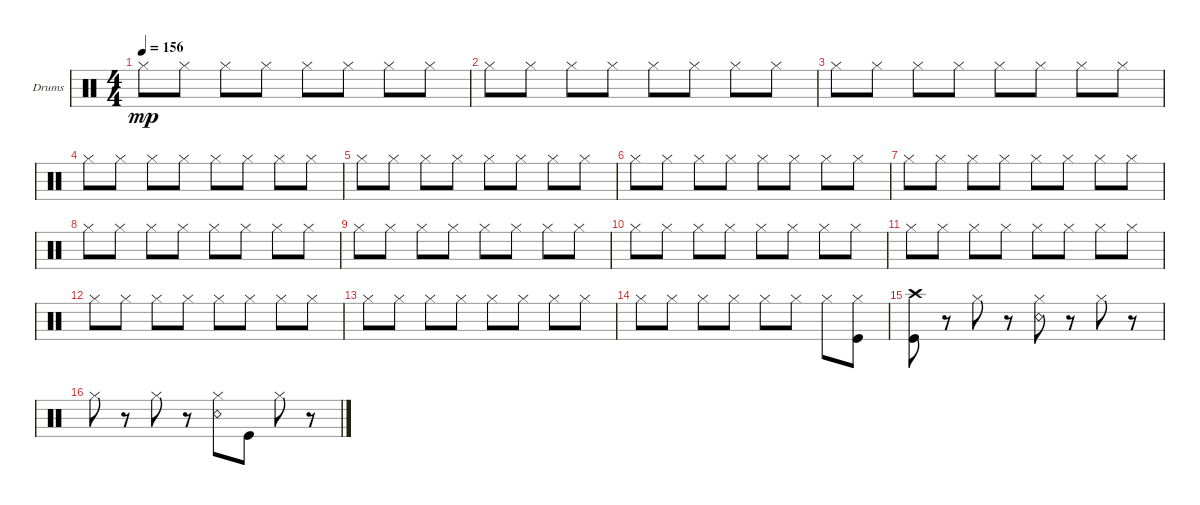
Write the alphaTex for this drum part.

\defaultSystemsLayout 4
\bracketExtendMode groupsimilarinstruments
\firstSystemTrackNameOrientation horizontal
\otherSystemsTrackNameOrientation horizontal
\track ("Drumkit" "Drums") {instrument percussion}
\staff {score}
\articulation defaults
\ts (4 4)
\tempo 156
\clef neutral
\ks c "Hi-Hat (closed)".8{dy mp} "Hi-Hat (closed)".8 "Hi-Hat (closed)".8 "Hi-Hat (closed)".8 "Hi-Hat (closed)".8 "Hi-Hat (closed)".8 "Hi-Hat (closed)".8 "Hi-Hat (closed)".8
|
"Hi-Hat (closed)".8 "Hi-Hat (closed)".8 "Hi-Hat (closed)".8 "Hi-Hat (closed)".8 "Hi-Hat (closed)".8 "Hi-Hat (closed)".8 "Hi-Hat (closed)".8 "Hi-Hat (closed)".8 |
"Hi-Hat (closed)".8 "Hi-Hat (closed)".8 "Hi-Hat (closed)".8 "Hi-Hat (closed)".8 "Hi-Hat (closed)".8 "Hi-Hat (closed)".8 "Hi-Hat (closed)".8 "Hi-Hat (closed)".8 |
"Hi-Hat (closed)".8 "Hi-Hat (closed)".8 "Hi-Hat (closed)".8 "Hi-Hat (closed)".8 "Hi-Hat (closed)".8 "Hi-Hat (closed)".8 "Hi-Hat (closed)".8 "Hi-Hat (closed)".8 |
"Hi-Hat (closed)".8 "Hi-Hat (closed)".8 "Hi-Hat (closed)".8 "Hi-Hat (closed)".8 "Hi-Hat (closed)".8 "Hi-Hat (closed)".8 "Hi-Hat (closed)".8 "Hi-Hat (closed)".8 |
"Hi-Hat (closed)".8 "Hi-Hat (closed)".8 "Hi-Hat (closed)".8 "Hi-Hat (closed)".8 "Hi-Hat (closed)".8 "Hi-Hat (closed)".8 "Hi-Hat (closed)".8 "Hi-Hat (closed)".8 |
"Hi-Hat (closed)".8 "Hi-Hat (closed)".8 "Hi-Hat (closed)".8 "Hi-Hat (closed)".8 "Hi-Hat (closed)".8 "Hi-Hat (closed)".8 "Hi-Hat (closed)".8 "Hi-Hat (closed)".8 |
"Hi-Hat (closed)".8 "Hi-Hat (closed)".8 "Hi-Hat (closed)".8 "Hi-Hat (closed)".8 "Hi-Hat (closed)".8 "Hi-Hat (closed)".8 "Hi-Hat (closed)".8 "Hi-Hat (closed)".8 |
"Hi-Hat (closed)".8 "Hi-Hat (closed)".8 "Hi-Hat (closed)".8 "Hi-Hat (closed)".8 "Hi-Hat (closed)".8 "Hi-Hat (closed)".8 "Hi-Hat (closed)".8 "Hi-Hat (closed)".8 |
"Hi-Hat (closed)".8 "Hi-Hat (closed)".8 "Hi-Hat (closed)".8 "Hi-Hat (closed)".8 "Hi-Hat (closed)".8 "Hi-Hat (closed)".8 "Hi-Hat (closed)".8 "Hi-Hat (closed)".8 |
"Hi-Hat (closed)".8 "Hi-Hat (closed)".8 "Hi-Hat (closed)".8 "Hi-Hat (closed)".8 "Hi-Hat (closed)".8 "Hi-Hat (closed)".8 "Hi-Hat (closed)".8 "Hi-Hat (closed)".8 |
"Hi-Hat (closed)".8 "Hi-Hat (closed)".8 "Hi-Hat (closed)".8 "Hi-Hat (closed)".8 "Hi-Hat (closed)".8 "Hi-Hat (closed)".8 "Hi-Hat (closed)".8 "Hi-Hat (closed)".8 |
"Hi-Hat (closed)".8 "Hi-Hat (closed)".8 "Hi-Hat (closed)".8 "Hi-Hat (closed)".8 "Hi-Hat (closed)".8 "Hi-Hat (closed)".8 "Hi-Hat (closed)".8 "Hi-Hat (closed)".8 |
"Hi-Hat (closed)".8 "Hi-Hat (closed)".8 "Hi-Hat (closed)".8 "Hi-Hat (closed)".8 "Hi-Hat (closed)".8 "Hi-Hat (closed)".8 "Hi-Hat (closed)".8 ("Hi-Hat (closed)" "Kick (hit)").8 |
("Kick (hit)" "Crash high (hit)").8 r.8 "Hi-Hat (closed)".8 r.8 ("Hi-Hat (closed)" "Snare (rim shot)").8 r.8 "Hi-Hat (closed)".8 r.8 |
"Hi-Hat (closed)".8 r.8 "Hi-Hat (closed)".8 r.8 ("Hi-Hat (closed)" "Snare (rim shot)").8 "Kick (hit)".8 "Hi-Hat (closed)".8 r.8
